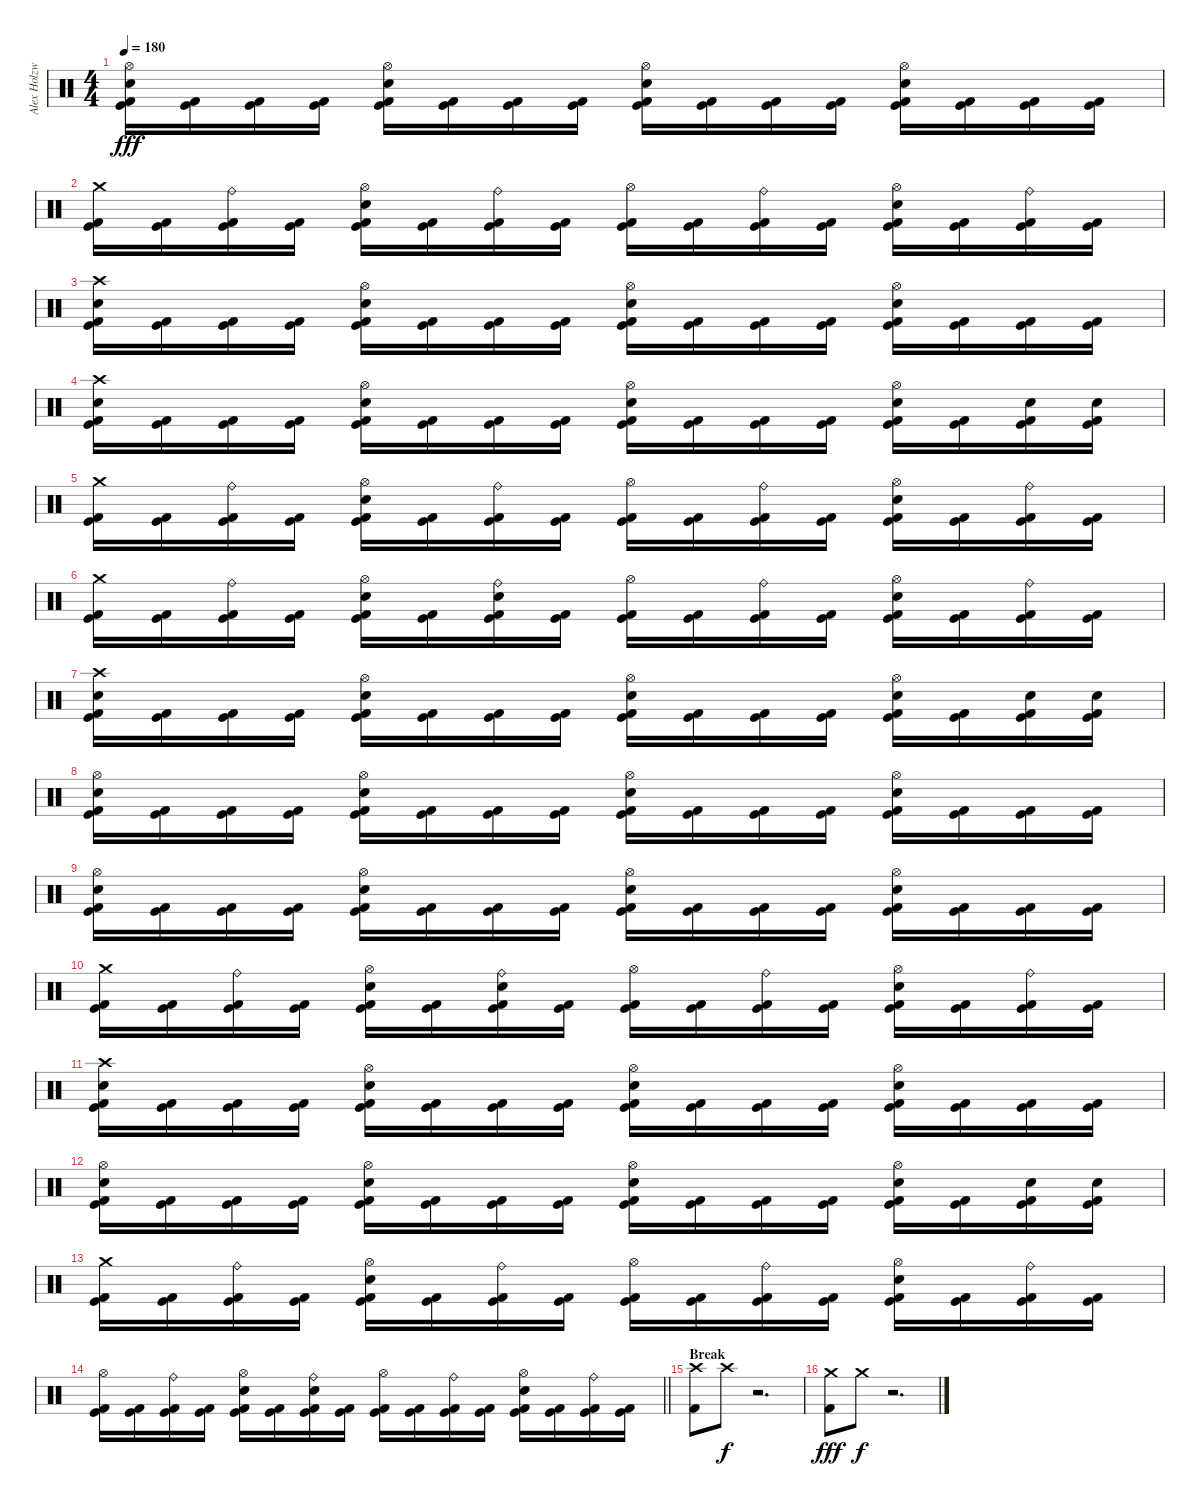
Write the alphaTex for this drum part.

\track ("Alex Holzwarth" "Alex Holzw") {instrument percussion}
\staff {score}
\articulation defaults
\ts (4 4)
\tempo 180
\clef neutral
\ks c
("Hi-Hat (open)" "Snare (hit) 2" "Kick (hit)" "Kick (hit) 2").16{dy fff} ("Kick (hit)" "Kick (hit) 2").16 ("Kick (hit)" "Kick (hit) 2").16 ("Kick (hit)" "Kick (hit) 2").16 ("Hi-Hat (open)" "Snare (hit) 2" "Kick (hit)" "Kick (hit) 2").16 ("Kick (hit)" "Kick (hit) 2").16 ("Kick (hit)" "Kick (hit) 2").16 ("Kick (hit)" "Kick (hit) 2").16 ("Hi-Hat (open)" "Snare (hit) 2" "Kick (hit)" "Kick (hit) 2").16 ("Kick (hit)" "Kick (hit) 2").16 ("Kick (hit)" "Kick (hit) 2").16 ("Kick (hit)" "Kick (hit) 2").16 ("Hi-Hat (open)" "Snare (hit) 2" "Kick (hit)" "Kick (hit) 2").16 ("Kick (hit)" "Kick (hit) 2").16 ("Kick (hit)" "Kick (hit) 2").16 ("Kick (hit)" "Kick (hit) 2").16 |
("Crash medium (hit)" "Kick (hit)" "Kick (hit) 2").16 ("Kick (hit)" "Kick (hit) 2").16 ("Ride (bell)" "Kick (hit)" "Kick (hit) 2").16 ("Kick (hit)" "Kick (hit) 2").16 ("Hi-Hat (open)" "Snare (hit) 2" "Kick (hit)" "Kick (hit) 2").16 ("Kick (hit)" "Kick (hit) 2").16 ("Ride (bell)" "Kick (hit)" "Kick (hit) 2").16 ("Kick (hit)" "Kick (hit) 2").16 ("Hi-Hat (open)" "Kick (hit)" "Kick (hit) 2").16 ("Kick (hit)" "Kick (hit) 2").16 ("Ride (bell)" "Kick (hit)" "Kick (hit) 2").16 ("Kick (hit)" "Kick (hit) 2").16 ("Hi-Hat (open)" "Snare (hit) 2" "Kick (hit)" "Kick (hit) 2").16 ("Kick (hit)" "Kick (hit) 2").16 ("Ride (bell)" "Kick (hit)" "Kick (hit) 2").16 ("Kick (hit)" "Kick (hit) 2").16 |
("Crash high (hit)" "Snare (hit) 2" "Kick (hit)" "Kick (hit) 2").16 ("Kick (hit)" "Kick (hit) 2").16 ("Kick (hit)" "Kick (hit) 2").16 ("Kick (hit)" "Kick (hit) 2").16 ("Hi-Hat (open)" "Snare (hit) 2" "Kick (hit)" "Kick (hit) 2").16 ("Kick (hit)" "Kick (hit) 2").16 ("Kick (hit)" "Kick (hit) 2").16 ("Kick (hit)" "Kick (hit) 2").16 ("Hi-Hat (open)" "Snare (hit) 2" "Kick (hit)" "Kick (hit) 2").16 ("Kick (hit)" "Kick (hit) 2").16 ("Kick (hit)" "Kick (hit) 2").16 ("Kick (hit)" "Kick (hit) 2").16 ("Hi-Hat (open)" "Snare (hit) 2" "Kick (hit)" "Kick (hit) 2").16 ("Kick (hit)" "Kick (hit) 2").16 ("Kick (hit)" "Kick (hit) 2").16 ("Kick (hit)" "Kick (hit) 2").16 |
("Crash high (hit)" "Snare (hit) 2" "Kick (hit)" "Kick (hit) 2").16 ("Kick (hit)" "Kick (hit) 2").16 ("Kick (hit)" "Kick (hit) 2").16 ("Kick (hit)" "Kick (hit) 2").16 ("Hi-Hat (open)" "Snare (hit) 2" "Kick (hit)" "Kick (hit) 2").16 ("Kick (hit)" "Kick (hit) 2").16 ("Kick (hit)" "Kick (hit) 2").16 ("Kick (hit)" "Kick (hit) 2").16 ("Hi-Hat (open)" "Snare (hit) 2" "Kick (hit)" "Kick (hit) 2").16 ("Kick (hit)" "Kick (hit) 2").16 ("Kick (hit)" "Kick (hit) 2").16 ("Kick (hit)" "Kick (hit) 2").16 ("Hi-Hat (open)" "Snare (hit) 2" "Kick (hit)" "Kick (hit) 2").16 ("Kick (hit)" "Kick (hit) 2").16 ("Snare (hit) 2" "Kick (hit)" "Kick (hit) 2").16 ("Snare (hit) 2" "Kick (hit)" "Kick (hit) 2").16 |
("Crash medium (hit)" "Kick (hit)" "Kick (hit) 2").16 ("Kick (hit)" "Kick (hit) 2").16 ("Ride (bell)" "Kick (hit)" "Kick (hit) 2").16 ("Kick (hit)" "Kick (hit) 2").16 ("Hi-Hat (open)" "Snare (hit) 2" "Kick (hit)" "Kick (hit) 2").16 ("Kick (hit)" "Kick (hit) 2").16 ("Ride (bell)" "Kick (hit)" "Kick (hit) 2").16 ("Kick (hit)" "Kick (hit) 2").16 ("Hi-Hat (open)" "Kick (hit)" "Kick (hit) 2").16 ("Kick (hit)" "Kick (hit) 2").16 ("Ride (bell)" "Kick (hit)" "Kick (hit) 2").16 ("Kick (hit)" "Kick (hit) 2").16 ("Hi-Hat (open)" "Snare (hit) 2" "Kick (hit)" "Kick (hit) 2").16 ("Kick (hit)" "Kick (hit) 2").16 ("Ride (bell)" "Kick (hit)" "Kick (hit) 2").16 ("Kick (hit)" "Kick (hit) 2").16 |
("Crash medium (hit)" "Kick (hit)" "Kick (hit) 2").16 ("Kick (hit)" "Kick (hit) 2").16 ("Ride (bell)" "Kick (hit)" "Kick (hit) 2").16 ("Kick (hit)" "Kick (hit) 2").16 ("Hi-Hat (open)" "Snare (hit) 2" "Kick (hit)" "Kick (hit) 2").16 ("Kick (hit)" "Kick (hit) 2").16 ("Ride (bell)" "Snare (hit) 2" "Kick (hit)" "Kick (hit) 2").16 ("Kick (hit)" "Kick (hit) 2").16 ("Hi-Hat (open)" "Kick (hit)" "Kick (hit) 2").16 ("Kick (hit)" "Kick (hit) 2").16 ("Ride (bell)" "Kick (hit)" "Kick (hit) 2").16 ("Kick (hit)" "Kick (hit) 2").16 ("Hi-Hat (open)" "Snare (hit) 2" "Kick (hit)" "Kick (hit) 2").16 ("Kick (hit)" "Kick (hit) 2").16 ("Ride (bell)" "Kick (hit)" "Kick (hit) 2").16 ("Kick (hit)" "Kick (hit) 2").16 |
("Crash high (hit)" "Snare (hit) 2" "Kick (hit)" "Kick (hit) 2").16 ("Kick (hit)" "Kick (hit) 2").16 ("Kick (hit)" "Kick (hit) 2").16 ("Kick (hit)" "Kick (hit) 2").16 ("Hi-Hat (open)" "Snare (hit) 2" "Kick (hit)" "Kick (hit) 2").16 ("Kick (hit)" "Kick (hit) 2").16 ("Kick (hit)" "Kick (hit) 2").16 ("Kick (hit)" "Kick (hit) 2").16 ("Hi-Hat (open)" "Snare (hit) 2" "Kick (hit)" "Kick (hit) 2").16 ("Kick (hit)" "Kick (hit) 2").16 ("Kick (hit)" "Kick (hit) 2").16 ("Kick (hit)" "Kick (hit) 2").16 ("Hi-Hat (open)" "Snare (hit) 2" "Kick (hit)" "Kick (hit) 2").16 ("Kick (hit)" "Kick (hit) 2").16 ("Snare (hit) 2" "Kick (hit)" "Kick (hit) 2").16 ("Snare (hit) 2" "Kick (hit)" "Kick (hit) 2").16 |
("Hi-Hat (open)" "Snare (hit) 2" "Kick (hit)" "Kick (hit) 2").16 ("Kick (hit)" "Kick (hit) 2").16 ("Kick (hit)" "Kick (hit) 2").16 ("Kick (hit)" "Kick (hit) 2").16 ("Hi-Hat (open)" "Snare (hit) 2" "Kick (hit)" "Kick (hit) 2").16 ("Kick (hit)" "Kick (hit) 2").16 ("Kick (hit)" "Kick (hit) 2").16 ("Kick (hit)" "Kick (hit) 2").16 ("Hi-Hat (open)" "Snare (hit) 2" "Kick (hit)" "Kick (hit) 2").16 ("Kick (hit)" "Kick (hit) 2").16 ("Kick (hit)" "Kick (hit) 2").16 ("Kick (hit)" "Kick (hit) 2").16 ("Hi-Hat (open)" "Snare (hit) 2" "Kick (hit)" "Kick (hit) 2").16 ("Kick (hit)" "Kick (hit) 2").16 ("Kick (hit)" "Kick (hit) 2").16 ("Kick (hit)" "Kick (hit) 2").16 |
("Hi-Hat (open)" "Snare (hit) 2" "Kick (hit)" "Kick (hit) 2").16 ("Kick (hit)" "Kick (hit) 2").16 ("Kick (hit)" "Kick (hit) 2").16 ("Kick (hit)" "Kick (hit) 2").16 ("Hi-Hat (open)" "Snare (hit) 2" "Kick (hit)" "Kick (hit) 2").16 ("Kick (hit)" "Kick (hit) 2").16 ("Kick (hit)" "Kick (hit) 2").16 ("Kick (hit)" "Kick (hit) 2").16 ("Hi-Hat (open)" "Snare (hit) 2" "Kick (hit)" "Kick (hit) 2").16 ("Kick (hit)" "Kick (hit) 2").16 ("Kick (hit)" "Kick (hit) 2").16 ("Kick (hit)" "Kick (hit) 2").16 ("Hi-Hat (open)" "Snare (hit) 2" "Kick (hit)" "Kick (hit) 2").16 ("Kick (hit)" "Kick (hit) 2").16 ("Kick (hit)" "Kick (hit) 2").16 ("Kick (hit)" "Kick (hit) 2").16 |
("Crash medium (hit)" "Kick (hit)" "Kick (hit) 2").16 ("Kick (hit)" "Kick (hit) 2").16 ("Ride (bell)" "Kick (hit)" "Kick (hit) 2").16 ("Kick (hit)" "Kick (hit) 2").16 ("Hi-Hat (open)" "Snare (hit) 2" "Kick (hit)" "Kick (hit) 2").16 ("Kick (hit)" "Kick (hit) 2").16 ("Ride (bell)" "Snare (hit) 2" "Kick (hit)" "Kick (hit) 2").16 ("Kick (hit)" "Kick (hit) 2").16 ("Hi-Hat (open)" "Kick (hit)" "Kick (hit) 2").16 ("Kick (hit)" "Kick (hit) 2").16 ("Ride (bell)" "Kick (hit)" "Kick (hit) 2").16 ("Kick (hit)" "Kick (hit) 2").16 ("Hi-Hat (open)" "Snare (hit) 2" "Kick (hit)" "Kick (hit) 2").16 ("Kick (hit)" "Kick (hit) 2").16 ("Ride (bell)" "Kick (hit)" "Kick (hit) 2").16 ("Kick (hit)" "Kick (hit) 2").16 |
("Crash high (hit)" "Snare (hit) 2" "Kick (hit)" "Kick (hit) 2").16 ("Kick (hit)" "Kick (hit) 2").16 ("Kick (hit)" "Kick (hit) 2").16 ("Kick (hit)" "Kick (hit) 2").16 ("Hi-Hat (open)" "Snare (hit) 2" "Kick (hit)" "Kick (hit) 2").16 ("Kick (hit)" "Kick (hit) 2").16 ("Kick (hit)" "Kick (hit) 2").16 ("Kick (hit)" "Kick (hit) 2").16 ("Hi-Hat (open)" "Snare (hit) 2" "Kick (hit)" "Kick (hit) 2").16 ("Kick (hit)" "Kick (hit) 2").16 ("Kick (hit)" "Kick (hit) 2").16 ("Kick (hit)" "Kick (hit) 2").16 ("Hi-Hat (open)" "Snare (hit) 2" "Kick (hit)" "Kick (hit) 2").16 ("Kick (hit)" "Kick (hit) 2").16 ("Kick (hit)" "Kick (hit) 2").16 ("Kick (hit)" "Kick (hit) 2").16 |
("Hi-Hat (open)" "Snare (hit) 2" "Kick (hit)" "Kick (hit) 2").16 ("Kick (hit)" "Kick (hit) 2").16 ("Kick (hit)" "Kick (hit) 2").16 ("Kick (hit)" "Kick (hit) 2").16 ("Hi-Hat (open)" "Snare (hit) 2" "Kick (hit)" "Kick (hit) 2").16 ("Kick (hit)" "Kick (hit) 2").16 ("Kick (hit)" "Kick (hit) 2").16 ("Kick (hit)" "Kick (hit) 2").16 ("Hi-Hat (open)" "Snare (hit) 2" "Kick (hit)" "Kick (hit) 2").16 ("Kick (hit)" "Kick (hit) 2").16 ("Kick (hit)" "Kick (hit) 2").16 ("Kick (hit)" "Kick (hit) 2").16 ("Hi-Hat (open)" "Snare (hit) 2" "Kick (hit)" "Kick (hit) 2").16 ("Kick (hit)" "Kick (hit) 2").16 ("Snare (hit) 2" "Kick (hit)" "Kick (hit) 2").16 ("Snare (hit) 2" "Kick (hit)" "Kick (hit) 2").16 |
("Crash medium (hit)" "Kick (hit)" "Kick (hit) 2").16 ("Kick (hit)" "Kick (hit) 2").16 ("Ride (bell)" "Kick (hit)" "Kick (hit) 2").16 ("Kick (hit)" "Kick (hit) 2").16 ("Hi-Hat (open)" "Snare (hit) 2" "Kick (hit)" "Kick (hit) 2").16 ("Kick (hit)" "Kick (hit) 2").16 ("Ride (bell)" "Kick (hit)" "Kick (hit) 2").16 ("Kick (hit)" "Kick (hit) 2").16 ("Hi-Hat (open)" "Kick (hit)" "Kick (hit) 2").16 ("Kick (hit)" "Kick (hit) 2").16 ("Ride (bell)" "Kick (hit)" "Kick (hit) 2").16 ("Kick (hit)" "Kick (hit) 2").16 ("Hi-Hat (open)" "Snare (hit) 2" "Kick (hit)" "Kick (hit) 2").16 ("Kick (hit)" "Kick (hit) 2").16 ("Ride (bell)" "Kick (hit)" "Kick (hit) 2").16 ("Kick (hit)" "Kick (hit) 2").16 |
\barLineRight lightlight
("Hi-Hat (open)" "Kick (hit)" "Kick (hit) 2").16 ("Kick (hit)" "Kick (hit) 2").16 ("Ride (bell)" "Kick (hit)" "Kick (hit) 2").16 ("Kick (hit)" "Kick (hit) 2").16 ("Hi-Hat (open)" "Snare (hit) 2" "Kick (hit)" "Kick (hit) 2").16 ("Kick (hit)" "Kick (hit) 2").16 ("Ride (bell)" "Snare (hit) 2" "Kick (hit)" "Kick (hit) 2").16 ("Kick (hit)" "Kick (hit) 2").16 ("Hi-Hat (open)" "Kick (hit)" "Kick (hit) 2").16 ("Kick (hit)" "Kick (hit) 2").16 ("Ride (bell)" "Kick (hit)" "Kick (hit) 2").16 ("Kick (hit)" "Kick (hit) 2").16 ("Hi-Hat (open)" "Snare (hit) 2" "Kick (hit)" "Kick (hit) 2").16 ("Kick (hit)" "Kick (hit) 2").16 ("Ride (bell)" "Kick (hit)" "Kick (hit) 2").16 ("Kick (hit)" "Kick (hit) 2").16 |
\section ("" "Break")
("Crash high (hit)" "Kick (hit) 2").8 "Crash high (hit)".8{dy f volume 0} r.2{d} |
("Crash medium (hit)" "Kick (hit) 2").8{dy fff volume 16} "Crash medium (hit)".8{dy f volume 0} r.2{d}
